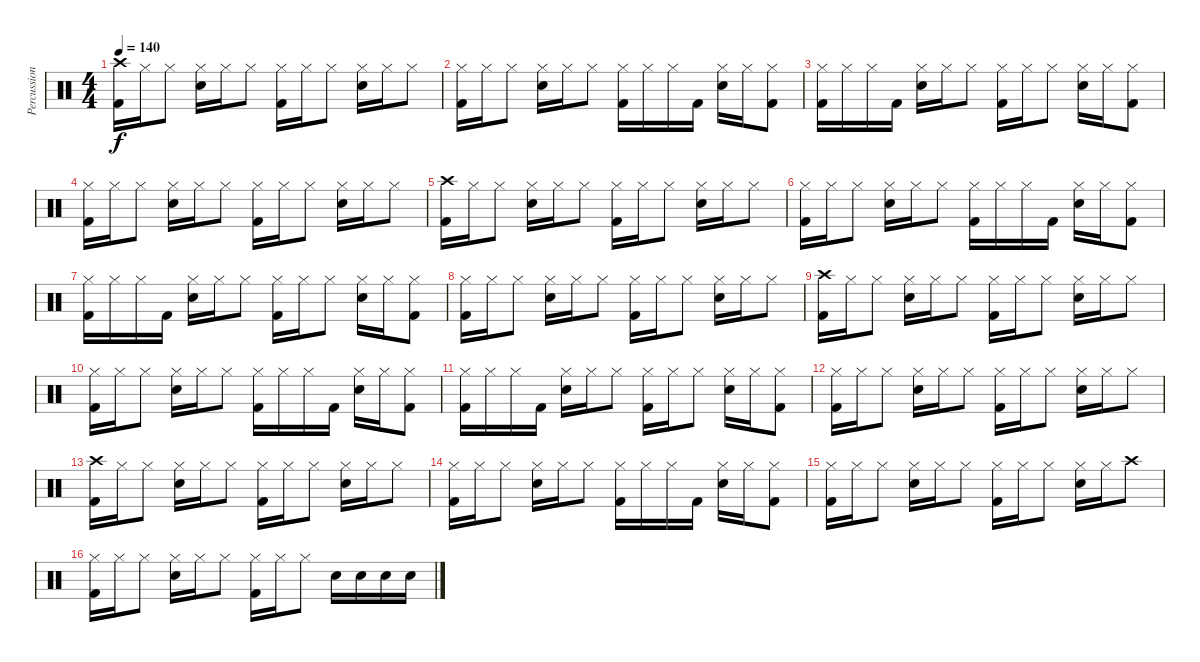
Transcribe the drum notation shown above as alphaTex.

\track ("Percussion" "Percussion") {instrument percussion}
\staff {score}
\articulation defaults
\ts (4 4)
\tempo 140
\clef neutral
\ks c
("Crash high (hit)" "Kick (hit) 2").16{dy f} "Hi-Hat (closed)".16 "Hi-Hat (closed)".8 ("Hi-Hat (closed)" "Electric Snare (hit)").16 "Hi-Hat (closed)".16 "Hi-Hat (closed)".8 ("Hi-Hat (closed)" "Kick (hit) 2").16 "Hi-Hat (closed)".16 "Hi-Hat (closed)".8 ("Hi-Hat (closed)" "Electric Snare (hit)").16 "Hi-Hat (closed)".16 "Hi-Hat (closed)".8 |
("Hi-Hat (closed)" "Kick (hit) 2").16 "Hi-Hat (closed)".16 "Hi-Hat (closed)".8 ("Hi-Hat (closed)" "Electric Snare (hit)").16 "Hi-Hat (closed)".16 "Hi-Hat (closed)".8 ("Hi-Hat (closed)" "Kick (hit) 2").16 "Hi-Hat (closed)".16 "Hi-Hat (closed)".16 "Kick (hit) 2".16 ("Hi-Hat (closed)" "Electric Snare (hit)").16 "Hi-Hat (closed)".16 ("Hi-Hat (closed)" "Kick (hit) 2").8 |
("Hi-Hat (closed)" "Kick (hit) 2").16 "Hi-Hat (closed)".16 "Hi-Hat (closed)".16 "Kick (hit) 2".16 ("Hi-Hat (closed)" "Electric Snare (hit)").16 "Hi-Hat (closed)".16 "Hi-Hat (closed)".8 ("Hi-Hat (closed)" "Kick (hit) 2").16 "Hi-Hat (closed)".16 "Hi-Hat (closed)".8 ("Hi-Hat (closed)" "Electric Snare (hit)").16 "Hi-Hat (closed)".16 ("Hi-Hat (closed)" "Kick (hit) 2").8 |
("Hi-Hat (closed)" "Kick (hit) 2").16 "Hi-Hat (closed)".16 "Hi-Hat (closed)".8 ("Hi-Hat (closed)" "Electric Snare (hit)").16 "Hi-Hat (closed)".16 "Hi-Hat (closed)".8 ("Hi-Hat (closed)" "Kick (hit) 2").16 "Hi-Hat (closed)".16 "Hi-Hat (closed)".8 ("Hi-Hat (closed)" "Electric Snare (hit)").16 "Hi-Hat (closed)".16 "Hi-Hat (closed)".8 |
("Crash high (hit)" "Kick (hit) 2").16 "Hi-Hat (closed)".16 "Hi-Hat (closed)".8 ("Hi-Hat (closed)" "Electric Snare (hit)").16 "Hi-Hat (closed)".16 "Hi-Hat (closed)".8 ("Hi-Hat (closed)" "Kick (hit) 2").16 "Hi-Hat (closed)".16 "Hi-Hat (closed)".8 ("Hi-Hat (closed)" "Electric Snare (hit)").16 "Hi-Hat (closed)".16 "Hi-Hat (closed)".8 |
("Hi-Hat (closed)" "Kick (hit) 2").16 "Hi-Hat (closed)".16 "Hi-Hat (closed)".8 ("Hi-Hat (closed)" "Electric Snare (hit)").16 "Hi-Hat (closed)".16 "Hi-Hat (closed)".8 ("Hi-Hat (closed)" "Kick (hit) 2").16 "Hi-Hat (closed)".16 "Hi-Hat (closed)".16 "Kick (hit) 2".16 ("Hi-Hat (closed)" "Electric Snare (hit)").16 "Hi-Hat (closed)".16 ("Hi-Hat (closed)" "Kick (hit) 2").8 |
("Hi-Hat (closed)" "Kick (hit) 2").16 "Hi-Hat (closed)".16 "Hi-Hat (closed)".16 "Kick (hit) 2".16 ("Hi-Hat (closed)" "Electric Snare (hit)").16 "Hi-Hat (closed)".16 "Hi-Hat (closed)".8 ("Hi-Hat (closed)" "Kick (hit) 2").16 "Hi-Hat (closed)".16 "Hi-Hat (closed)".8 ("Hi-Hat (closed)" "Electric Snare (hit)").16 "Hi-Hat (closed)".16 ("Hi-Hat (closed)" "Kick (hit) 2").8 |
("Hi-Hat (closed)" "Kick (hit) 2").16 "Hi-Hat (closed)".16 "Hi-Hat (closed)".8 ("Hi-Hat (closed)" "Electric Snare (hit)").16 "Hi-Hat (closed)".16 "Hi-Hat (closed)".8 ("Hi-Hat (closed)" "Kick (hit) 2").16 "Hi-Hat (closed)".16 "Hi-Hat (closed)".8 ("Hi-Hat (closed)" "Electric Snare (hit)").16 "Hi-Hat (closed)".16 "Hi-Hat (closed)".8 |
("Crash high (hit)" "Kick (hit) 2").16 "Hi-Hat (closed)".16 "Hi-Hat (closed)".8 ("Hi-Hat (closed)" "Electric Snare (hit)").16 "Hi-Hat (closed)".16 "Hi-Hat (closed)".8 ("Hi-Hat (closed)" "Kick (hit) 2").16 "Hi-Hat (closed)".16 "Hi-Hat (closed)".8 ("Hi-Hat (closed)" "Electric Snare (hit)").16 "Hi-Hat (closed)".16 "Hi-Hat (closed)".8 |
("Hi-Hat (closed)" "Kick (hit) 2").16 "Hi-Hat (closed)".16 "Hi-Hat (closed)".8 ("Hi-Hat (closed)" "Electric Snare (hit)").16 "Hi-Hat (closed)".16 "Hi-Hat (closed)".8 ("Hi-Hat (closed)" "Kick (hit) 2").16 "Hi-Hat (closed)".16 "Hi-Hat (closed)".16 "Kick (hit) 2".16 ("Hi-Hat (closed)" "Electric Snare (hit)").16 "Hi-Hat (closed)".16 ("Hi-Hat (closed)" "Kick (hit) 2").8 |
("Hi-Hat (closed)" "Kick (hit) 2").16 "Hi-Hat (closed)".16 "Hi-Hat (closed)".16 "Kick (hit) 2".16 ("Hi-Hat (closed)" "Electric Snare (hit)").16 "Hi-Hat (closed)".16 "Hi-Hat (closed)".8 ("Hi-Hat (closed)" "Kick (hit) 2").16 "Hi-Hat (closed)".16 "Hi-Hat (closed)".8 ("Hi-Hat (closed)" "Electric Snare (hit)").16 "Hi-Hat (closed)".16 ("Hi-Hat (closed)" "Kick (hit) 2").8 |
("Hi-Hat (closed)" "Kick (hit) 2").16 "Hi-Hat (closed)".16 "Hi-Hat (closed)".8 ("Hi-Hat (closed)" "Electric Snare (hit)").16 "Hi-Hat (closed)".16 "Hi-Hat (closed)".8 ("Hi-Hat (closed)" "Kick (hit) 2").16 "Hi-Hat (closed)".16 "Hi-Hat (closed)".8 ("Hi-Hat (closed)" "Electric Snare (hit)").16 "Hi-Hat (closed)".16 "Hi-Hat (closed)".8 |
("Crash high (hit)" "Kick (hit) 2").16 "Hi-Hat (closed)".16 "Hi-Hat (closed)".8 ("Hi-Hat (closed)" "Electric Snare (hit)").16 "Hi-Hat (closed)".16 "Hi-Hat (closed)".8 ("Hi-Hat (closed)" "Kick (hit) 2").16 "Hi-Hat (closed)".16 "Hi-Hat (closed)".8 ("Hi-Hat (closed)" "Electric Snare (hit)").16 "Hi-Hat (closed)".16 "Hi-Hat (closed)".8 |
("Hi-Hat (closed)" "Kick (hit) 2").16 "Hi-Hat (closed)".16 "Hi-Hat (closed)".8 ("Hi-Hat (closed)" "Electric Snare (hit)").16 "Hi-Hat (closed)".16 "Hi-Hat (closed)".8 ("Hi-Hat (closed)" "Kick (hit) 2").16 "Hi-Hat (closed)".16 "Hi-Hat (closed)".16 "Kick (hit) 2".16 ("Hi-Hat (closed)" "Electric Snare (hit)").16 "Hi-Hat (closed)".16 ("Hi-Hat (closed)" "Kick (hit) 2").8 |
("Hi-Hat (closed)" "Kick (hit) 2").16 "Hi-Hat (closed)".16 "Hi-Hat (closed)".8 ("Hi-Hat (closed)" "Electric Snare (hit)").16 "Hi-Hat (closed)".16 "Hi-Hat (closed)".8 ("Hi-Hat (closed)" "Kick (hit) 2").16 "Hi-Hat (closed)".16 "Hi-Hat (closed)".8 ("Hi-Hat (closed)" "Electric Snare (hit)").16 "Hi-Hat (closed)".16 "Crash high (hit)".8 |
("Hi-Hat (closed)" "Kick (hit) 2").16 "Hi-Hat (closed)".16 "Hi-Hat (closed)".8 ("Hi-Hat (closed)" "Electric Snare (hit)").16 "Hi-Hat (closed)".16 "Hi-Hat (closed)".8 ("Hi-Hat (closed)" "Kick (hit) 2").16 "Hi-Hat (closed)".16 "Hi-Hat (closed)".8 "Electric Snare (hit)".16 "Electric Snare (hit)".16 "Electric Snare (hit)".16 "Electric Snare (hit)".16
